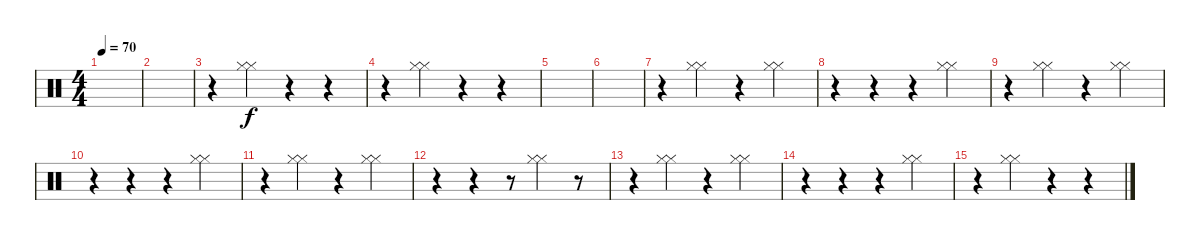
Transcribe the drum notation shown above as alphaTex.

\track "" {instrument percussion}
\staff {score}
\articulation defaults
\ts (4 4)
\tempo 70
\clef neutral
\ks c
|
|
r.4 ("Hi-Hat (closed)" "Hi-Hat (closed)").4 r.4 r.4 |
r.4 ("Hi-Hat (closed)" "Hi-Hat (closed)").4 r.4 r.4 |
|
|
r.4 ("Hi-Hat (closed)" "Hi-Hat (closed)").4 r.4 ("Hi-Hat (closed)" "Hi-Hat (closed)").4 |
r.4 r.4 r.4 ("Hi-Hat (closed)" "Hi-Hat (closed)").4 |
r.4 ("Hi-Hat (closed)" "Hi-Hat (closed)").4 r.4 ("Hi-Hat (closed)" "Hi-Hat (closed)").4 |
r.4 r.4 r.4 ("Hi-Hat (closed)" "Hi-Hat (closed)").4 |
r.4 ("Hi-Hat (closed)" "Hi-Hat (closed)").4 r.4 ("Hi-Hat (closed)" "Hi-Hat (closed)").4 |
r.4 r.4 r.8 ("Hi-Hat (closed)" "Hi-Hat (closed)").4 r.8 |
r.4 ("Hi-Hat (closed)" "Hi-Hat (closed)").4 r.4 ("Hi-Hat (closed)" "Hi-Hat (closed)").4 |
r.4 r.4 r.4 ("Hi-Hat (closed)" "Hi-Hat (closed)").4 |
r.4 ("Hi-Hat (closed)" "Hi-Hat (closed)").4 r.4 r.4
